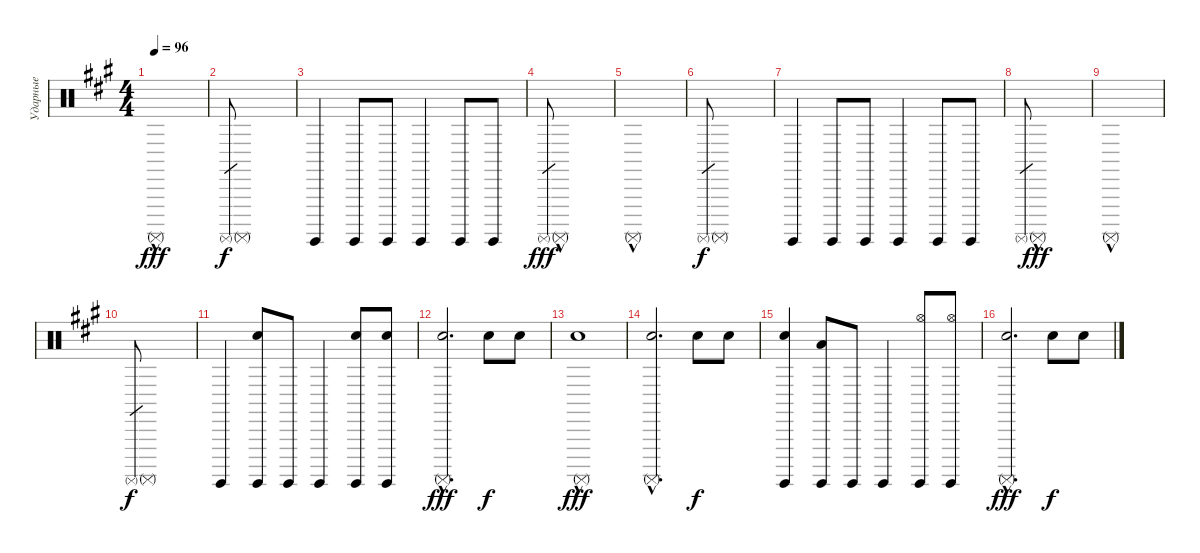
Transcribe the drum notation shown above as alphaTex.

\track ("Ударные" "Ударные") {solo instrument percussion}
\staff {score}
\articulation defaults
\ts (4 4)
\tempo 96
\clef neutral
\ks f#minor "Surdo (mute)"{hac}.1{dy fff}
|
"Surdo (mute)".8{gr dy f} "Surdo (mute)".1 |
"Surdo (hit)".4 "Surdo (hit)".8 "Surdo (hit)".8 "Surdo (hit)".4 "Surdo (hit)".8 "Surdo (hit)".8 |
"Surdo (mute)".8{gr dy fff} "Surdo (mute)"{hac}.1 |
"Surdo (mute)"{hac}.1 |
"Surdo (mute)".8{gr dy f} "Surdo (mute)".1 |
"Surdo (hit)".4 "Surdo (hit)".8 "Surdo (hit)".8 "Surdo (hit)".4 "Surdo (hit)".8 "Surdo (hit)".8 |
"Surdo (mute)".8{gr} "Surdo (mute)"{hac}.1{dy fff} |
"Surdo (mute)"{hac}.1 |
"Surdo (mute)".8{gr dy f} "Surdo (mute)".1 |
"Surdo (hit)".4 ("Snare (hit) 2" "Surdo (hit)").8 "Surdo (hit)".8 "Surdo (hit)".4 ("Snare (hit) 2" "Surdo (hit)").8 ("Snare (hit) 2" "Surdo (hit)").8 |
("Snare (hit) 2" "Surdo (mute)"{hac}).2{d dy fff} "Electric Snare (hit)".8{dy f} "Electric Snare (hit)".8 |
("Snare (hit) 2" "Surdo (mute)"{hac}).1{dy fff} |
("Snare (hit) 2" "Surdo (mute)"{hac}).2{d} "Electric Snare (hit)".8{dy f} "Electric Snare (hit)".8 |
("Snare (hit) 2" "Surdo (hit)").4 ("Low Floor Tom (hit)" "Surdo (hit)").8 "Surdo (hit)".8 "Surdo (hit)".4 ("Surdo (hit)" "Hi-Hat (open)").8 ("Hi-Hat (open)" "Surdo (hit)").8 |
("Snare (hit) 2" "Surdo (mute)"{hac}).2{d dy fff} "Electric Snare (hit)".8{dy f} "Electric Snare (hit)".8
